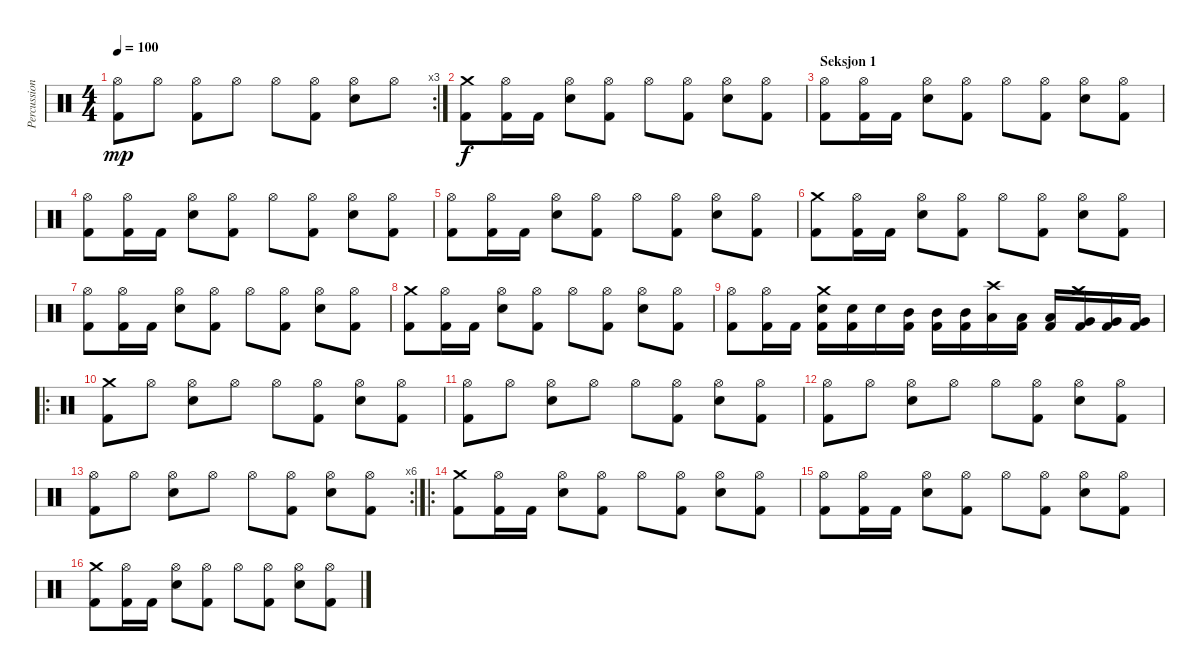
\track ("Percussion" "Percussion") {instrument percussion}
\staff {score}
\articulation defaults
\rc 3
\ts (4 4)
\tempo 100
\clef neutral
\ks c
("Hi-Hat (open)" "Kick (hit) 2").8{dy mp} "Hi-Hat (open)".8 ("Hi-Hat (open)" "Kick (hit) 2").8 "Hi-Hat (open)".8 "Hi-Hat (open)".8 ("Hi-Hat (open)" "Kick (hit) 2").8 ("Hi-Hat (open)" "Electric Snare (hit)").8 "Hi-Hat (open)".8 |
("Crash medium (hit)" "Kick (hit) 2").8{dy f} ("Hi-Hat (open)" "Kick (hit) 2").16 "Kick (hit) 2".16 ("Hi-Hat (open)" "Electric Snare (hit)").8 ("Hi-Hat (open)" "Kick (hit) 2").8 "Hi-Hat (open)".8 ("Hi-Hat (open)" "Kick (hit) 2").8 ("Hi-Hat (open)" "Electric Snare (hit)").8 ("Hi-Hat (open)" "Kick (hit) 2").8 |
\section ("" "Seksjon 1")
("Hi-Hat (open)" "Kick (hit) 2").8 ("Hi-Hat (open)" "Kick (hit) 2").16 "Kick (hit) 2".16 ("Hi-Hat (open)" "Electric Snare (hit)").8 ("Hi-Hat (open)" "Kick (hit) 2").8 "Hi-Hat (open)".8 ("Hi-Hat (open)" "Kick (hit) 2").8 ("Hi-Hat (open)" "Electric Snare (hit)").8 ("Hi-Hat (open)" "Kick (hit) 2").8 |
("Hi-Hat (open)" "Kick (hit) 2").8 ("Hi-Hat (open)" "Kick (hit) 2").16 "Kick (hit) 2".16 ("Hi-Hat (open)" "Electric Snare (hit)").8 ("Hi-Hat (open)" "Kick (hit) 2").8 "Hi-Hat (open)".8 ("Hi-Hat (open)" "Kick (hit) 2").8 ("Hi-Hat (open)" "Electric Snare (hit)").8 ("Hi-Hat (open)" "Kick (hit) 2").8 |
("Hi-Hat (open)" "Kick (hit) 2").8 ("Hi-Hat (open)" "Kick (hit) 2").16 "Kick (hit) 2".16 ("Hi-Hat (open)" "Electric Snare (hit)").8 ("Hi-Hat (open)" "Kick (hit) 2").8 "Hi-Hat (open)".8 ("Hi-Hat (open)" "Kick (hit) 2").8 ("Hi-Hat (open)" "Electric Snare (hit)").8 ("Hi-Hat (open)" "Kick (hit) 2").8 |
("Crash medium (hit)" "Kick (hit) 2").8 ("Hi-Hat (open)" "Kick (hit) 2").16 "Kick (hit) 2".16 ("Hi-Hat (open)" "Electric Snare (hit)").8 ("Hi-Hat (open)" "Kick (hit) 2").8 "Hi-Hat (open)".8 ("Hi-Hat (open)" "Kick (hit) 2").8 ("Hi-Hat (open)" "Electric Snare (hit)").8 ("Hi-Hat (open)" "Kick (hit) 2").8 |
("Hi-Hat (open)" "Kick (hit) 2").8 ("Hi-Hat (open)" "Kick (hit) 2").16 "Kick (hit) 2".16 ("Hi-Hat (open)" "Electric Snare (hit)").8 ("Hi-Hat (open)" "Kick (hit) 2").8 "Hi-Hat (open)".8 ("Hi-Hat (open)" "Kick (hit) 2").8 ("Hi-Hat (open)" "Electric Snare (hit)").8 ("Hi-Hat (open)" "Kick (hit) 2").8 |
("Crash medium (hit)" "Kick (hit) 2").8 ("Hi-Hat (open)" "Kick (hit) 2").16 "Kick (hit) 2".16 ("Hi-Hat (open)" "Electric Snare (hit)").8 ("Hi-Hat (open)" "Kick (hit) 2").8 "Hi-Hat (open)".8 ("Hi-Hat (open)" "Kick (hit) 2").8 ("Hi-Hat (open)" "Electric Snare (hit)").8 ("Hi-Hat (open)" "Kick (hit) 2").8 |
("Hi-Hat (open)" "Kick (hit) 2").8 ("Hi-Hat (open)" "Kick (hit) 2").16 "Kick (hit) 2".16 ("Crash medium (hit)" "Electric Snare (hit)" "Kick (hit) 2").16 ("Electric Snare (hit)" "Kick (hit) 2").16 "Electric Snare (hit)".16 ("Mid Tom (hit)" "Kick (hit) 2").16 ("Mid Tom (hit)" "Kick (hit) 2").16 ("Mid Tom (hit)" "Kick (hit) 2").16 ("Crash high (hit)" "Low Tom (hit)").16 ("Low Tom (hit)" "Kick (hit) 2").16 ("Low Tom (hit)" "Kick (hit) 2").16 ("Crash medium (hit)" "Very Low Tom (hit)" "Kick (hit) 2").16 ("Very Low Tom (hit)" "Kick (hit) 2").16 ("Very Low Tom (hit)" "Kick (hit) 2").16 |
\ro
("Crash medium (hit)" "Kick (hit) 2").8 "Hi-Hat (open)".8 ("Hi-Hat (open)" "Electric Snare (hit)").8 "Hi-Hat (open)".8 "Hi-Hat (open)".8 ("Hi-Hat (open)" "Kick (hit) 2").8 ("Hi-Hat (open)" "Electric Snare (hit)").8 ("Hi-Hat (open)" "Kick (hit) 2").8 |
("Hi-Hat (open)" "Kick (hit) 2").8 "Hi-Hat (open)".8 ("Hi-Hat (open)" "Electric Snare (hit)").8 "Hi-Hat (open)".8 "Hi-Hat (open)".8 ("Hi-Hat (open)" "Kick (hit) 2").8 ("Hi-Hat (open)" "Electric Snare (hit)").8 ("Hi-Hat (open)" "Kick (hit) 2").8 |
("Hi-Hat (open)" "Kick (hit) 2").8 "Hi-Hat (open)".8 ("Hi-Hat (open)" "Electric Snare (hit)").8 "Hi-Hat (open)".8 "Hi-Hat (open)".8 ("Hi-Hat (open)" "Kick (hit) 2").8 ("Hi-Hat (open)" "Electric Snare (hit)").8 ("Hi-Hat (open)" "Kick (hit) 2").8 |
\rc 6
("Hi-Hat (open)" "Kick (hit) 2").8 "Hi-Hat (open)".8 ("Hi-Hat (open)" "Electric Snare (hit)").8 "Hi-Hat (open)".8 "Hi-Hat (open)".8 ("Hi-Hat (open)" "Kick (hit) 2").8 ("Hi-Hat (open)" "Electric Snare (hit)").8 ("Hi-Hat (open)" "Kick (hit) 2").8 |
\ro
("Crash medium (hit)" "Kick (hit) 2").8 ("Hi-Hat (open)" "Kick (hit) 2").16 "Kick (hit) 2".16 ("Hi-Hat (open)" "Electric Snare (hit)").8 ("Hi-Hat (open)" "Kick (hit) 2").8 "Hi-Hat (open)".8 ("Hi-Hat (open)" "Kick (hit) 2").8 ("Hi-Hat (open)" "Electric Snare (hit)").8 ("Hi-Hat (open)" "Kick (hit) 2").8 |
("Hi-Hat (open)" "Kick (hit) 2").8 ("Hi-Hat (open)" "Kick (hit) 2").16 "Kick (hit) 2".16 ("Hi-Hat (open)" "Electric Snare (hit)").8 ("Hi-Hat (open)" "Kick (hit) 2").8 "Hi-Hat (open)".8 ("Hi-Hat (open)" "Kick (hit) 2").8 ("Hi-Hat (open)" "Electric Snare (hit)").8 ("Hi-Hat (open)" "Kick (hit) 2").8 |
("Crash medium (hit)" "Kick (hit) 2").8 ("Hi-Hat (open)" "Kick (hit) 2").16 "Kick (hit) 2".16 ("Hi-Hat (open)" "Electric Snare (hit)").8 ("Hi-Hat (open)" "Kick (hit) 2").8 "Hi-Hat (open)".8 ("Hi-Hat (open)" "Kick (hit) 2").8 ("Hi-Hat (open)" "Electric Snare (hit)").8 ("Hi-Hat (open)" "Kick (hit) 2").8
